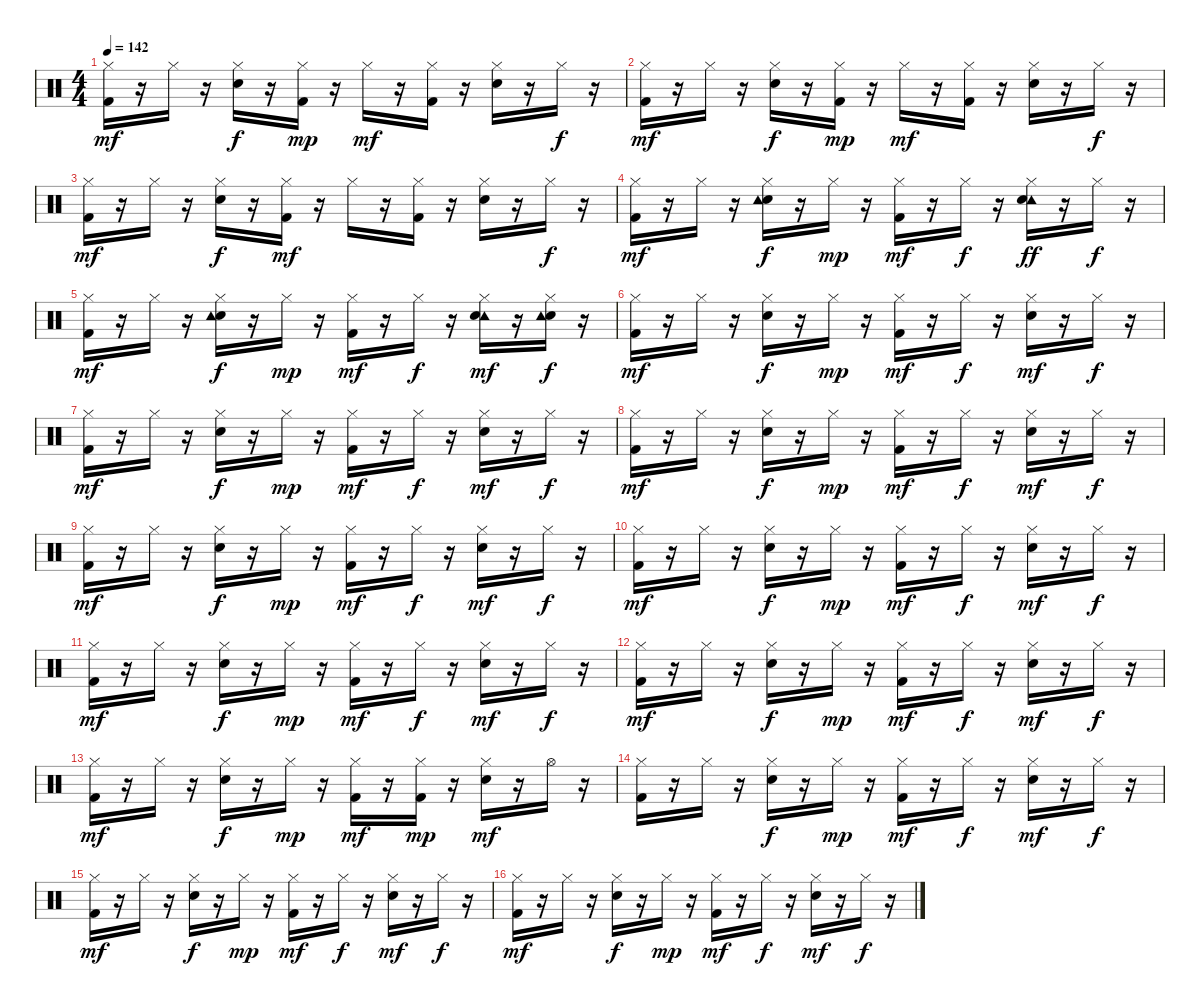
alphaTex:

\track "" {instrument percussion}
\staff {score}
\articulation defaults
\ts (4 4)
\tempo 142
\clef neutral
\ks c
("Hi-Hat (closed)" "Kick (hit) 2").16{dy mf} r.16 "Hi-Hat (closed)".16 r.16 ("Hi-Hat (closed)" "Electric Snare (hit)").16{dy f} r.16 ("Kick (hit) 2" "Hi-Hat (closed)").16{dy mp} r.16 "Hi-Hat (closed)".16{dy mf} r.16 ("Kick (hit) 2" "Hi-Hat (closed)").16 r.16 ("Hi-Hat (closed)" "Electric Snare (hit)").16 r.16 "Hi-Hat (closed)".16{dy f} r.16 |
("Hi-Hat (closed)" "Kick (hit) 2").16{dy mf} r.16 "Hi-Hat (closed)".16 r.16 ("Electric Snare (hit)" "Hi-Hat (closed)").16{dy f} r.16 ("Kick (hit) 2" "Hi-Hat (closed)").16{dy mp} r.16 "Hi-Hat (closed)".16{dy mf} r.16 ("Hi-Hat (closed)" "Kick (hit) 2").16 r.16 ("Electric Snare (hit)" "Hi-Hat (closed)").16 r.16 "Hi-Hat (closed)".16{dy f} r.16 |
("Hi-Hat (closed)" "Kick (hit) 2").16{dy mf} r.16 "Hi-Hat (closed)".16 r.16 ("Electric Snare (hit)" "Hi-Hat (closed)").16{dy f} r.16 ("Hi-Hat (closed)" "Kick (hit) 2").16{dy mf} r.16 "Hi-Hat (closed)".16 r.16 ("Hi-Hat (closed)" "Kick (hit) 2").16 r.16 ("Electric Snare (hit)" "Hi-Hat (closed)").16 r.16 "Hi-Hat (closed)".16{dy f} r.16 |
("Hi-Hat (closed)" "Kick (hit) 2").16{dy mf} r.16 "Hi-Hat (closed)".16 r.16 ("Hi-Hat (closed)" "Electric Snare (hit)" "Tambourine (hit)").16{dy f} r.16 "Hi-Hat (closed)".16{dy mp} r.16 ("Kick (hit) 2" "Hi-Hat (closed)").16{dy mf} r.16 "Hi-Hat (closed)".16{dy f} r.16 ("Hi-Hat (closed)" "Tambourine (hit)" "Electric Snare (hit)").16{dy ff} r.16 "Hi-Hat (closed)".16{dy f} r.16 |
("Kick (hit) 2" "Hi-Hat (closed)").16{dy mf} r.16 "Hi-Hat (closed)".16 r.16 ("Electric Snare (hit)" "Hi-Hat (closed)" "Tambourine (hit)").16{dy f} r.16 "Hi-Hat (closed)".16{dy mp} r.16 ("Kick (hit) 2" "Hi-Hat (closed)").16{dy mf} r.16 "Hi-Hat (closed)".16{dy f} r.16 ("Tambourine (hit)" "Electric Snare (hit)" "Hi-Hat (closed)").16{dy mf} r.16 ("Hi-Hat (closed)" "Electric Snare (hit)" "Tambourine (hit)").16{dy f} r.16 |
("Hi-Hat (closed)" "Kick (hit) 2").16{dy mf} r.16 "Hi-Hat (closed)".16 r.16 ("Electric Snare (hit)" "Hi-Hat (closed)").16{dy f} r.16 "Hi-Hat (closed)".16{dy mp} r.16 ("Hi-Hat (closed)" "Kick (hit) 2").16{dy mf} r.16 "Hi-Hat (closed)".16{dy f} r.16 ("Electric Snare (hit)" "Hi-Hat (closed)").16{dy mf} r.16 "Hi-Hat (closed)".16{dy f} r.16 |
("Hi-Hat (closed)" "Kick (hit) 2").16{dy mf} r.16 "Hi-Hat (closed)".16 r.16 ("Hi-Hat (closed)" "Electric Snare (hit)").16{dy f} r.16 "Hi-Hat (closed)".16{dy mp} r.16 ("Kick (hit) 2" "Hi-Hat (closed)").16{dy mf} r.16 "Hi-Hat (closed)".16{dy f} r.16 ("Electric Snare (hit)" "Hi-Hat (closed)").16{dy mf} r.16 "Hi-Hat (closed)".16{dy f} r.16 |
("Hi-Hat (closed)" "Kick (hit) 2").16{dy mf} r.16 "Hi-Hat (closed)".16 r.16 ("Hi-Hat (closed)" "Electric Snare (hit)").16{dy f} r.16 "Hi-Hat (closed)".16{dy mp} r.16 ("Kick (hit) 2" "Hi-Hat (closed)").16{dy mf} r.16 "Hi-Hat (closed)".16{dy f} r.16 ("Hi-Hat (closed)" "Electric Snare (hit)").16{dy mf} r.16 "Hi-Hat (closed)".16{dy f} r.16 |
("Kick (hit) 2" "Hi-Hat (closed)").16{dy mf} r.16 "Hi-Hat (closed)".16 r.16 ("Electric Snare (hit)" "Hi-Hat (closed)").16{dy f} r.16 "Hi-Hat (closed)".16{dy mp} r.16 ("Kick (hit) 2" "Hi-Hat (closed)").16{dy mf} r.16 "Hi-Hat (closed)".16{dy f} r.16 ("Electric Snare (hit)" "Hi-Hat (closed)").16{dy mf} r.16 "Hi-Hat (closed)".16{dy f} r.16 |
("Hi-Hat (closed)" "Kick (hit) 2").16{dy mf} r.16 "Hi-Hat (closed)".16 r.16 ("Electric Snare (hit)" "Hi-Hat (closed)").16{dy f} r.16 "Hi-Hat (closed)".16{dy mp} r.16 ("Kick (hit) 2" "Hi-Hat (closed)").16{dy mf} r.16 "Hi-Hat (closed)".16{dy f} r.16 ("Hi-Hat (closed)" "Electric Snare (hit)").16{dy mf} r.16 "Hi-Hat (closed)".16{dy f} r.16 |
("Hi-Hat (closed)" "Kick (hit) 2").16{dy mf} r.16 "Hi-Hat (closed)".16 r.16 ("Hi-Hat (closed)" "Electric Snare (hit)").16{dy f} r.16 "Hi-Hat (closed)".16{dy mp} r.16 ("Hi-Hat (closed)" "Kick (hit) 2").16{dy mf} r.16 "Hi-Hat (closed)".16{dy f} r.16 ("Electric Snare (hit)" "Hi-Hat (closed)").16{dy mf} r.16 "Hi-Hat (closed)".16{dy f} r.16 |
("Hi-Hat (closed)" "Kick (hit) 2").16{dy mf} r.16 "Hi-Hat (closed)".16 r.16 ("Hi-Hat (closed)" "Electric Snare (hit)").16{dy f} r.16 "Hi-Hat (closed)".16{dy mp} r.16 ("Kick (hit) 2" "Hi-Hat (closed)").16{dy mf} r.16 "Hi-Hat (closed)".16{dy f} r.16 ("Electric Snare (hit)" "Hi-Hat (closed)").16{dy mf} r.16 "Hi-Hat (closed)".16{dy f} r.16 |
("Kick (hit) 2" "Hi-Hat (closed)").16{dy mf} r.16 "Hi-Hat (closed)".16 r.16 ("Electric Snare (hit)" "Hi-Hat (closed)").16{dy f} r.16 "Hi-Hat (closed)".16{dy mp} r.16 ("Kick (hit) 2" "Hi-Hat (closed)").16{dy mf} r.16 ("Hi-Hat (closed)" "Kick (hit) 2").16{dy mp} r.16 ("Electric Snare (hit)" "Hi-Hat (closed)").16{dy mf} r.16 "Hi-Hat (open)".16 r.16 |
("Kick (hit) 2" "Hi-Hat (closed)").16 r.16 "Hi-Hat (closed)".16 r.16 ("Electric Snare (hit)" "Hi-Hat (closed)").16{dy f} r.16 "Hi-Hat (closed)".16{dy mp} r.16 ("Kick (hit) 2" "Hi-Hat (closed)").16{dy mf} r.16 "Hi-Hat (closed)".16{dy f} r.16 ("Hi-Hat (closed)" "Electric Snare (hit)").16{dy mf} r.16 "Hi-Hat (closed)".16{dy f} r.16 |
("Hi-Hat (closed)" "Kick (hit) 2").16{dy mf} r.16 "Hi-Hat (closed)".16 r.16 ("Hi-Hat (closed)" "Electric Snare (hit)").16{dy f} r.16 "Hi-Hat (closed)".16{dy mp} r.16 ("Kick (hit) 2" "Hi-Hat (closed)").16{dy mf} r.16 "Hi-Hat (closed)".16{dy f} r.16 ("Hi-Hat (closed)" "Electric Snare (hit)").16{dy mf} r.16 "Hi-Hat (closed)".16{dy f} r.16 |
("Hi-Hat (closed)" "Kick (hit) 2").16{dy mf} r.16 "Hi-Hat (closed)".16 r.16 ("Electric Snare (hit)" "Hi-Hat (closed)").16{dy f} r.16 "Hi-Hat (closed)".16{dy mp} r.16 ("Hi-Hat (closed)" "Kick (hit) 2").16{dy mf} r.16 "Hi-Hat (closed)".16{dy f} r.16 ("Hi-Hat (closed)" "Electric Snare (hit)").16{dy mf} r.16 "Hi-Hat (closed)".16{dy f} r.16
